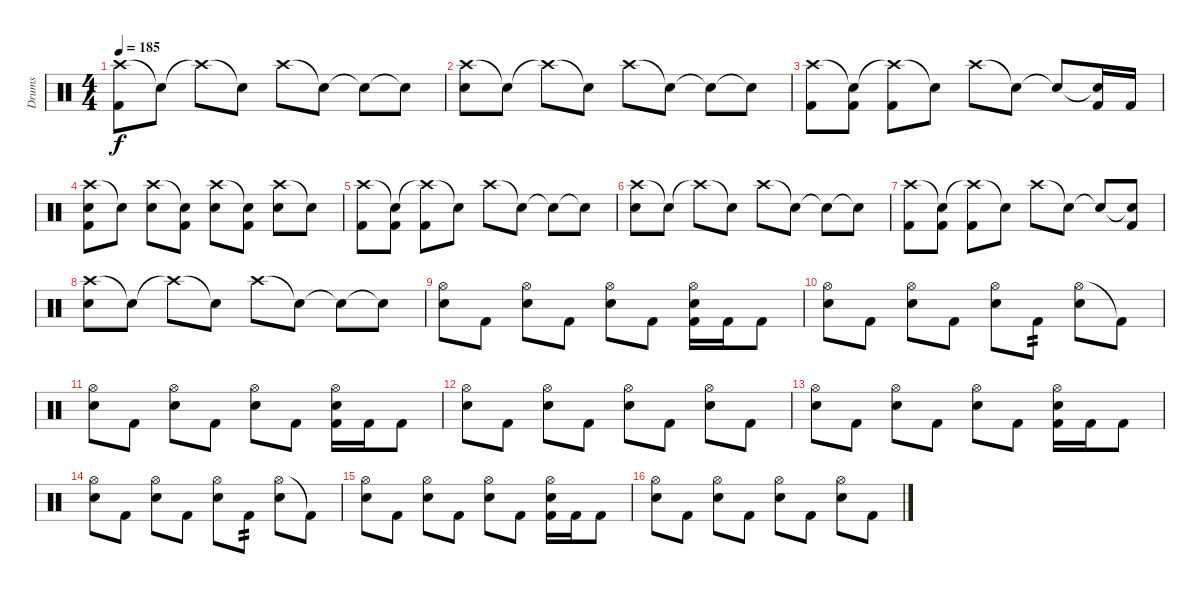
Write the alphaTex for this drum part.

\track ("Drums" "Drums") {instrument percussion}
\staff {score}
\articulation defaults
\ts (4 4)
\tempo 185
\clef neutral
\ks c
("Crash high (hit)" "Kick (hit) 2").8{dy f} "Snare (hit)"{t}.8 "Crash high (hit)"{t}.8 "Snare (hit)"{t}.8 "Crash high (hit)".8 "Snare (hit)"{t}.8 "Snare (hit)"{t}.8 "Snare (hit)"{t}.8 |
("Crash high (hit)" "Electric Snare (hit)").8 "Snare (hit)"{t}.8 "Crash high (hit)"{t}.8 "Snare (hit)"{t}.8 "Crash high (hit)".8 "Snare (hit)"{t}.8 "Snare (hit)"{t}.8 "Snare (hit)"{t}.8 |
("Crash high (hit)" "Kick (hit) 2").8 ("Snare (hit)"{t} "Kick (hit) 2").8 ("Crash high (hit)"{t} "Kick (hit) 2").8 "Snare (hit)"{t}.8 "Crash high (hit)".8 "Snare (hit)"{t}.8 "Snare (hit)"{t}.8 ("Snare (hit)"{t} "Kick (hit) 2").16 "Kick (hit) 2".16 |
("Crash high (hit)" "Electric Snare (hit)" "Kick (hit) 2").8 "Snare (hit)"{t}.8 ("Crash high (hit)" "Electric Snare (hit)").8 ("Snare (hit)"{t} "Kick (hit) 2").8 ("Crash high (hit)" "Electric Snare (hit)").8 ("Snare (hit)"{t} "Kick (hit) 2").8 ("Crash high (hit)" "Electric Snare (hit)").8 "Snare (hit)"{t}.8 |
("Crash high (hit)" "Kick (hit) 2").8 ("Snare (hit)"{t} "Kick (hit) 2").8 ("Crash high (hit)"{t} "Kick (hit) 2").8 "Snare (hit)"{t}.8 "Crash high (hit)".8 "Snare (hit)"{t}.8 "Snare (hit)"{t}.8 "Snare (hit)"{t}.8 |
("Crash high (hit)" "Electric Snare (hit)").8 "Snare (hit)"{t}.8 "Crash high (hit)"{t}.8 "Snare (hit)"{t}.8 "Crash high (hit)".8 "Snare (hit)"{t}.8 "Snare (hit)"{t}.8 "Snare (hit)"{t}.8 |
("Crash high (hit)" "Kick (hit) 2").8 ("Snare (hit)"{t} "Kick (hit) 2").8 ("Crash high (hit)"{t} "Kick (hit) 2").8 "Snare (hit)"{t}.8 "Crash high (hit)".8 "Snare (hit)"{t}.8 "Snare (hit)"{t}.8 ("Snare (hit)"{t} "Kick (hit) 2").8 |
("Crash high (hit)" "Electric Snare (hit)").8 "Snare (hit)"{t}.8 "Crash high (hit)"{t}.8 "Snare (hit)"{t}.8 "Crash high (hit)".8 "Snare (hit)"{t}.8 "Snare (hit)"{t}.8 "Snare (hit)"{t}.8 |
("Hi-Hat (open)" "Electric Snare (hit)").8 "Kick (hit) 2".8 ("Hi-Hat (open)" "Electric Snare (hit)").8 "Kick (hit) 2".8 ("Hi-Hat (open)" "Electric Snare (hit)").8 "Kick (hit) 2".8 ("Hi-Hat (open)" "Electric Snare (hit)" "Kick (hit) 2").16 "Kick (hit) 2".16 "Kick (hit) 2".8 |
("Hi-Hat (open)" "Electric Snare (hit)").8 "Kick (hit) 2".8 ("Hi-Hat (open)" "Electric Snare (hit)").8 "Kick (hit) 2".8 ("Hi-Hat (open)" "Electric Snare (hit)").8 "Kick (hit) 2".8{tp 2} ("Hi-Hat (open)" "Electric Snare (hit)").8 "Kick (hit) 2"{t}.8 |
("Hi-Hat (open)" "Electric Snare (hit)").8 "Kick (hit) 2".8 ("Hi-Hat (open)" "Electric Snare (hit)").8 "Kick (hit) 2".8 ("Hi-Hat (open)" "Electric Snare (hit)").8 "Kick (hit) 2".8 ("Hi-Hat (open)" "Electric Snare (hit)" "Kick (hit) 2").16 "Kick (hit) 2".16 "Kick (hit) 2".8 |
("Hi-Hat (open)" "Electric Snare (hit)").8 "Kick (hit) 2".8 ("Hi-Hat (open)" "Electric Snare (hit)").8 "Kick (hit) 2".8 ("Hi-Hat (open)" "Electric Snare (hit)").8 "Kick (hit) 2".8 ("Hi-Hat (open)" "Electric Snare (hit)").8 "Kick (hit) 2".8 |
("Hi-Hat (open)" "Electric Snare (hit)").8 "Kick (hit) 2".8 ("Hi-Hat (open)" "Electric Snare (hit)").8 "Kick (hit) 2".8 ("Hi-Hat (open)" "Electric Snare (hit)").8 "Kick (hit) 2".8 ("Hi-Hat (open)" "Electric Snare (hit)" "Kick (hit) 2").16 "Kick (hit) 2".16 "Kick (hit) 2".8 |
("Hi-Hat (open)" "Electric Snare (hit)").8 "Kick (hit) 2".8 ("Hi-Hat (open)" "Electric Snare (hit)").8 "Kick (hit) 2".8 ("Hi-Hat (open)" "Electric Snare (hit)").8 "Kick (hit) 2".8{tp 2} ("Hi-Hat (open)" "Electric Snare (hit)").8 "Kick (hit) 2"{t}.8 |
("Hi-Hat (open)" "Electric Snare (hit)").8 "Kick (hit) 2".8 ("Hi-Hat (open)" "Electric Snare (hit)").8 "Kick (hit) 2".8 ("Hi-Hat (open)" "Electric Snare (hit)").8 "Kick (hit) 2".8 ("Hi-Hat (open)" "Electric Snare (hit)" "Kick (hit) 2").16 "Kick (hit) 2".16 "Kick (hit) 2".8 |
("Hi-Hat (open)" "Electric Snare (hit)").8 "Kick (hit) 2".8 ("Hi-Hat (open)" "Electric Snare (hit)").8 "Kick (hit) 2".8 ("Hi-Hat (open)" "Electric Snare (hit)").8 "Kick (hit) 2".8 ("Hi-Hat (open)" "Electric Snare (hit)").8 "Kick (hit) 2".8
